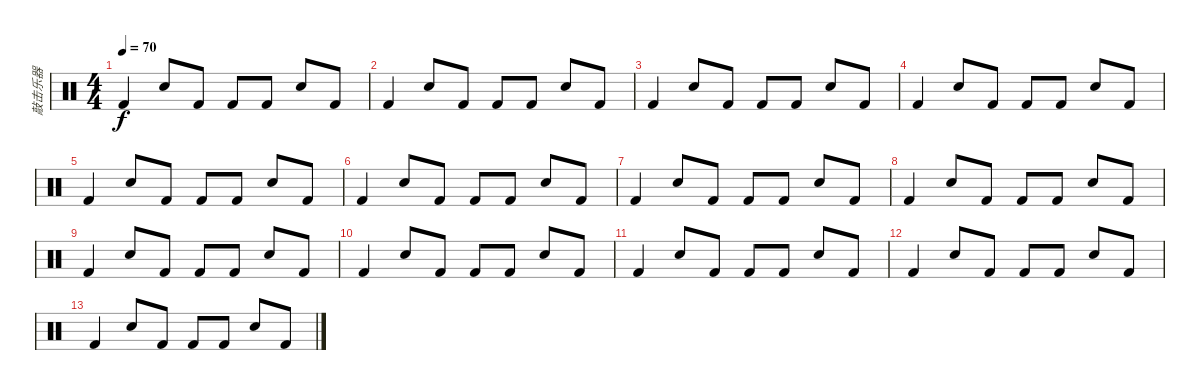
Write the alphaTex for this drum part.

\track ("敲击乐器" "敲击乐器") {instrument percussion}
\staff {score}
\articulation defaults
\ts (4 4)
\tempo 70
\clef neutral
\ks c "Kick (hit) 2".4{dy f} "Snare (hit) 2".8 "Kick (hit) 2".8 "Kick (hit) 2".8 "Kick (hit) 2".8 "Snare (hit) 2".8 "Kick (hit) 2".8
|
"Kick (hit) 2".4 "Snare (hit) 2".8 "Kick (hit) 2".8 "Kick (hit) 2".8 "Kick (hit) 2".8 "Snare (hit) 2".8 "Kick (hit) 2".8 |
"Kick (hit) 2".4 "Snare (hit) 2".8 "Kick (hit) 2".8 "Kick (hit) 2".8 "Kick (hit) 2".8 "Snare (hit) 2".8 "Kick (hit) 2".8 |
"Kick (hit) 2".4 "Snare (hit) 2".8 "Kick (hit) 2".8 "Kick (hit) 2".8 "Kick (hit) 2".8 "Snare (hit) 2".8 "Kick (hit) 2".8 |
"Kick (hit) 2".4 "Snare (hit) 2".8 "Kick (hit) 2".8 "Kick (hit) 2".8 "Kick (hit) 2".8 "Snare (hit) 2".8 "Kick (hit) 2".8 |
"Kick (hit) 2".4 "Snare (hit) 2".8 "Kick (hit) 2".8 "Kick (hit) 2".8 "Kick (hit) 2".8 "Snare (hit) 2".8 "Kick (hit) 2".8 |
"Kick (hit) 2".4 "Snare (hit) 2".8 "Kick (hit) 2".8 "Kick (hit) 2".8 "Kick (hit) 2".8 "Snare (hit) 2".8 "Kick (hit) 2".8 |
"Kick (hit) 2".4 "Snare (hit) 2".8 "Kick (hit) 2".8 "Kick (hit) 2".8 "Kick (hit) 2".8 "Snare (hit) 2".8 "Kick (hit) 2".8 |
"Kick (hit) 2".4 "Snare (hit) 2".8 "Kick (hit) 2".8 "Kick (hit) 2".8 "Kick (hit) 2".8 "Snare (hit) 2".8 "Kick (hit) 2".8 |
"Kick (hit) 2".4 "Snare (hit) 2".8 "Kick (hit) 2".8 "Kick (hit) 2".8 "Kick (hit) 2".8 "Snare (hit) 2".8 "Kick (hit) 2".8 |
"Kick (hit) 2".4 "Snare (hit) 2".8 "Kick (hit) 2".8 "Kick (hit) 2".8 "Kick (hit) 2".8 "Snare (hit) 2".8 "Kick (hit) 2".8 |
"Kick (hit) 2".4 "Snare (hit) 2".8 "Kick (hit) 2".8 "Kick (hit) 2".8 "Kick (hit) 2".8 "Snare (hit) 2".8 "Kick (hit) 2".8 |
"Kick (hit) 2".4 "Snare (hit) 2".8 "Kick (hit) 2".8 "Kick (hit) 2".8 "Kick (hit) 2".8 "Snare (hit) 2".8 "Kick (hit) 2".8
